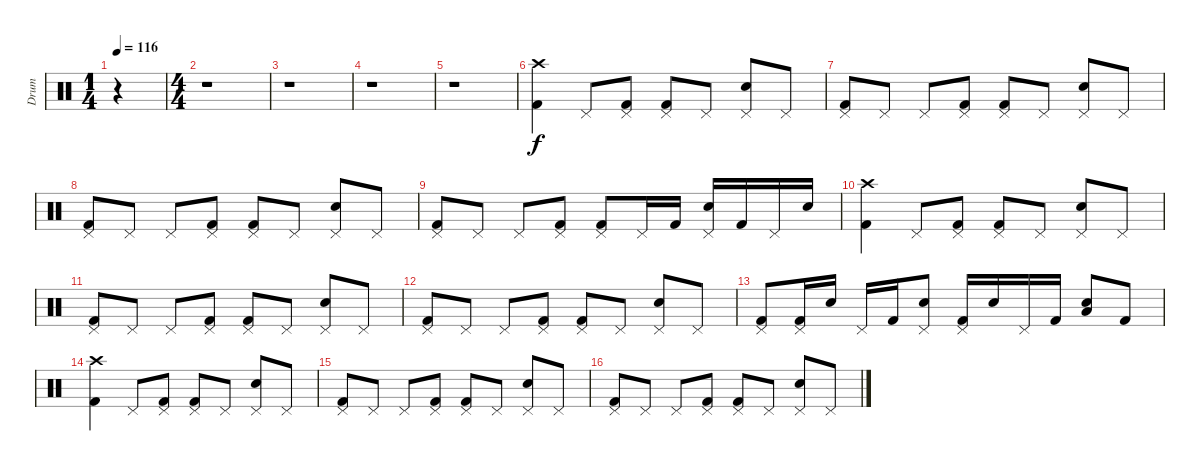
\track ("Drum" "Drum") {instrument percussion}
\staff {score}
\articulation defaults
\ts (1 4)
\tempo 116
\clef neutral
\ks c
r.4{dy f} |
\ts (4 4)
r.1 |
r.1 |
r.1 |
r.1 |
("Crash high (hit)" "Kick (hit) 2").4 "Pedal Hi-Hat (hit)".8 ("Pedal Hi-Hat (hit)" "Kick (hit) 2").8 ("Pedal Hi-Hat (hit)" "Kick (hit) 2").8 "Pedal Hi-Hat (hit)".8 ("Pedal Hi-Hat (hit)" "Electric Snare (hit)").8 "Pedal Hi-Hat (hit)".8 |
("Pedal Hi-Hat (hit)" "Kick (hit) 2").8 "Pedal Hi-Hat (hit)".8 "Pedal Hi-Hat (hit)".8 ("Pedal Hi-Hat (hit)" "Kick (hit) 2").8 ("Pedal Hi-Hat (hit)" "Kick (hit) 2").8 "Pedal Hi-Hat (hit)".8 ("Pedal Hi-Hat (hit)" "Electric Snare (hit)").8 "Pedal Hi-Hat (hit)".8 |
("Pedal Hi-Hat (hit)" "Kick (hit) 2").8 "Pedal Hi-Hat (hit)".8 "Pedal Hi-Hat (hit)".8 ("Pedal Hi-Hat (hit)" "Kick (hit) 2").8 ("Pedal Hi-Hat (hit)" "Kick (hit) 2").8 "Pedal Hi-Hat (hit)".8 ("Pedal Hi-Hat (hit)" "Electric Snare (hit)").8 "Pedal Hi-Hat (hit)".8 |
("Pedal Hi-Hat (hit)" "Kick (hit) 2").8 "Pedal Hi-Hat (hit)".8 "Pedal Hi-Hat (hit)".8 ("Pedal Hi-Hat (hit)" "Kick (hit) 2").8 ("Pedal Hi-Hat (hit)" "Kick (hit) 2").8 "Pedal Hi-Hat (hit)".16 "Kick (hit) 2".16 ("Pedal Hi-Hat (hit)" "Electric Snare (hit)").16 "Kick (hit) 2".16 "Pedal Hi-Hat (hit)".16 "Electric Snare (hit)".16 |
("Crash high (hit)" "Kick (hit) 2").4 "Pedal Hi-Hat (hit)".8 ("Pedal Hi-Hat (hit)" "Kick (hit) 2").8 ("Pedal Hi-Hat (hit)" "Kick (hit) 2").8 "Pedal Hi-Hat (hit)".8 ("Pedal Hi-Hat (hit)" "Electric Snare (hit)").8 "Pedal Hi-Hat (hit)".8 |
("Pedal Hi-Hat (hit)" "Kick (hit) 2").8 "Pedal Hi-Hat (hit)".8 "Pedal Hi-Hat (hit)".8 ("Pedal Hi-Hat (hit)" "Kick (hit) 2").8 ("Pedal Hi-Hat (hit)" "Kick (hit) 2").8 "Pedal Hi-Hat (hit)".8 ("Pedal Hi-Hat (hit)" "Electric Snare (hit)").8 "Pedal Hi-Hat (hit)".8 |
("Pedal Hi-Hat (hit)" "Kick (hit) 2").8 "Pedal Hi-Hat (hit)".8 "Pedal Hi-Hat (hit)".8 ("Pedal Hi-Hat (hit)" "Kick (hit) 2").8 ("Pedal Hi-Hat (hit)" "Kick (hit) 2").8 "Pedal Hi-Hat (hit)".8 ("Pedal Hi-Hat (hit)" "Electric Snare (hit)").8 "Pedal Hi-Hat (hit)".8 |
("Pedal Hi-Hat (hit)" "Kick (hit) 2").8 ("Pedal Hi-Hat (hit)" "Kick (hit) 2").16 "Electric Snare (hit)".16 "Pedal Hi-Hat (hit)".16 "Kick (hit) 2".16 ("Pedal Hi-Hat (hit)" "Electric Snare (hit)").8 ("Pedal Hi-Hat (hit)" "Kick (hit) 2").16 "Electric Snare (hit)".16 "Pedal Hi-Hat (hit)".16 "Kick (hit) 2".16 ("Low Tom (hit)" "Electric Snare (hit)").8 "Kick (hit) 2".8 |
("Crash high (hit)" "Kick (hit) 2").4 "Pedal Hi-Hat (hit)".8 ("Pedal Hi-Hat (hit)" "Kick (hit) 2").8 ("Pedal Hi-Hat (hit)" "Kick (hit) 2").8 "Pedal Hi-Hat (hit)".8 ("Pedal Hi-Hat (hit)" "Electric Snare (hit)").8 "Pedal Hi-Hat (hit)".8 |
("Pedal Hi-Hat (hit)" "Kick (hit) 2").8 "Pedal Hi-Hat (hit)".8 "Pedal Hi-Hat (hit)".8 ("Pedal Hi-Hat (hit)" "Kick (hit) 2").8 ("Pedal Hi-Hat (hit)" "Kick (hit) 2").8 "Pedal Hi-Hat (hit)".8 ("Pedal Hi-Hat (hit)" "Electric Snare (hit)").8 "Pedal Hi-Hat (hit)".8 |
("Pedal Hi-Hat (hit)" "Kick (hit) 2").8 "Pedal Hi-Hat (hit)".8 "Pedal Hi-Hat (hit)".8 ("Pedal Hi-Hat (hit)" "Kick (hit) 2").8 ("Pedal Hi-Hat (hit)" "Kick (hit) 2").8 "Pedal Hi-Hat (hit)".8 ("Pedal Hi-Hat (hit)" "Electric Snare (hit)").8 "Pedal Hi-Hat (hit)".8
